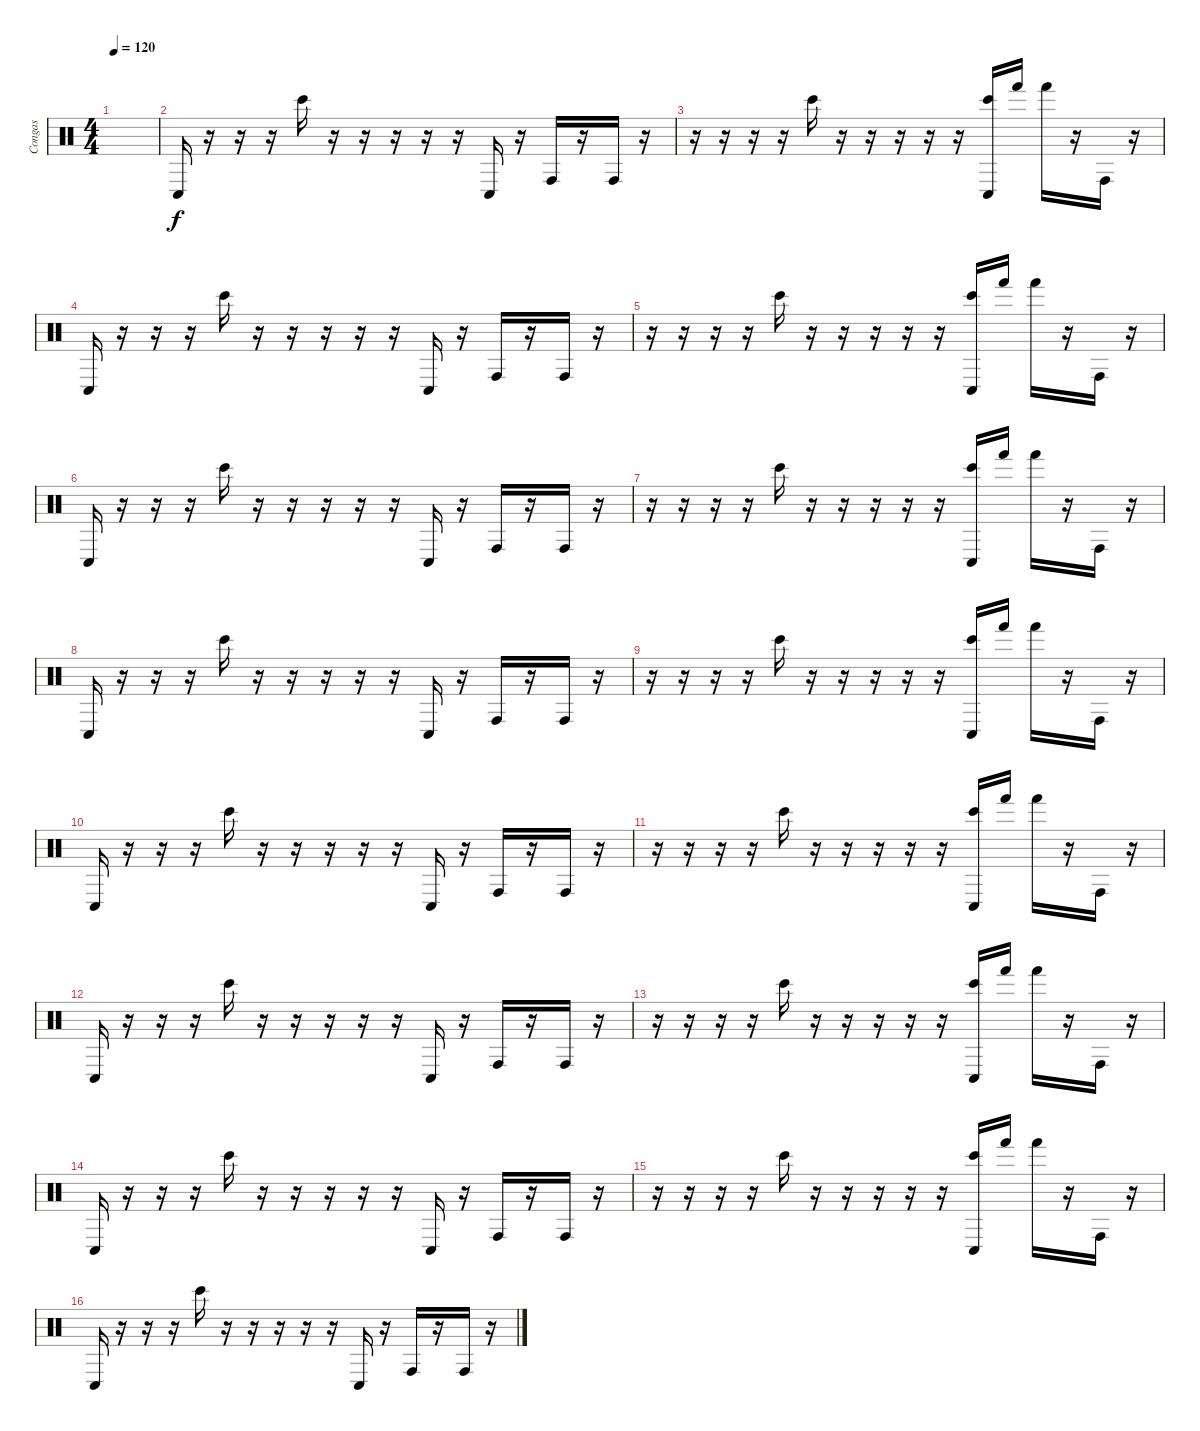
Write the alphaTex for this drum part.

\track ("Congas" "Congas") {instrument percussion}
\staff {score}
\articulation defaults
\ts (4 4)
\tempo 120
\clef neutral
\ks c
|
"Conga low (hit)".16 r.16 r.16 r.16 "Bongo High (hit)".16 r.16 r.16 r.16 r.16 r.16 "Conga low (hit)".16 r.16 "Conga high (hit)".16 r.16 "Conga high (hit)".16 r.16 |
r.16 r.16 r.16 r.16 "Bongo High (hit)".16 r.16 r.16 r.16 r.16 r.16 ("Bongo High (hit)" "Conga low (hit)").16 "Hand (hit)".16 "Hand (hit)".16 r.16 "Conga high (hit)".16 r.16 |
"Conga low (hit)".16 r.16 r.16 r.16 "Bongo High (hit)".16 r.16 r.16 r.16 r.16 r.16 "Conga low (hit)".16 r.16 "Conga high (hit)".16 r.16 "Conga high (hit)".16 r.16 |
r.16 r.16 r.16 r.16 "Bongo High (hit)".16 r.16 r.16 r.16 r.16 r.16 ("Bongo High (hit)" "Conga low (hit)").16 "Hand (hit)".16 "Hand (hit)".16 r.16 "Conga high (hit)".16 r.16 |
"Conga low (hit)".16 r.16 r.16 r.16 "Bongo High (hit)".16 r.16 r.16 r.16 r.16 r.16 "Conga low (hit)".16 r.16 "Conga high (hit)".16 r.16 "Conga high (hit)".16 r.16 |
r.16 r.16 r.16 r.16 "Bongo High (hit)".16 r.16 r.16 r.16 r.16 r.16 ("Bongo High (hit)" "Conga low (hit)").16 "Hand (hit)".16 "Hand (hit)".16 r.16 "Conga high (hit)".16 r.16 |
"Conga low (hit)".16 r.16 r.16 r.16 "Bongo High (hit)".16 r.16 r.16 r.16 r.16 r.16 "Conga low (hit)".16 r.16 "Conga high (hit)".16 r.16 "Conga high (hit)".16 r.16 |
r.16 r.16 r.16 r.16 "Bongo High (hit)".16 r.16 r.16 r.16 r.16 r.16 ("Bongo High (hit)" "Conga low (hit)").16 "Hand (hit)".16 "Hand (hit)".16 r.16 "Conga high (hit)".16 r.16 |
"Conga low (hit)".16 r.16 r.16 r.16 "Bongo High (hit)".16 r.16 r.16 r.16 r.16 r.16 "Conga low (hit)".16 r.16 "Conga high (hit)".16 r.16 "Conga high (hit)".16 r.16 |
r.16 r.16 r.16 r.16 "Bongo High (hit)".16 r.16 r.16 r.16 r.16 r.16 ("Bongo High (hit)" "Conga low (hit)").16 "Hand (hit)".16 "Hand (hit)".16 r.16 "Conga high (hit)".16 r.16 |
"Conga low (hit)".16 r.16 r.16 r.16 "Bongo High (hit)".16 r.16 r.16 r.16 r.16 r.16 "Conga low (hit)".16 r.16 "Conga high (hit)".16 r.16 "Conga high (hit)".16 r.16 |
r.16 r.16 r.16 r.16 "Bongo High (hit)".16 r.16 r.16 r.16 r.16 r.16 ("Bongo High (hit)" "Conga low (hit)").16 "Hand (hit)".16 "Hand (hit)".16 r.16 "Conga high (hit)".16 r.16 |
"Conga low (hit)".16 r.16 r.16 r.16 "Bongo High (hit)".16 r.16 r.16 r.16 r.16 r.16 "Conga low (hit)".16 r.16 "Conga high (hit)".16 r.16 "Conga high (hit)".16 r.16 |
r.16 r.16 r.16 r.16 "Bongo High (hit)".16 r.16 r.16 r.16 r.16 r.16 ("Bongo High (hit)" "Conga low (hit)").16 "Hand (hit)".16 "Hand (hit)".16 r.16 "Conga high (hit)".16 r.16 |
"Conga low (hit)".16 r.16 r.16 r.16 "Bongo High (hit)".16 r.16 r.16 r.16 r.16 r.16 "Conga low (hit)".16 r.16 "Conga high (hit)".16 r.16 "Conga high (hit)".16 r.16
